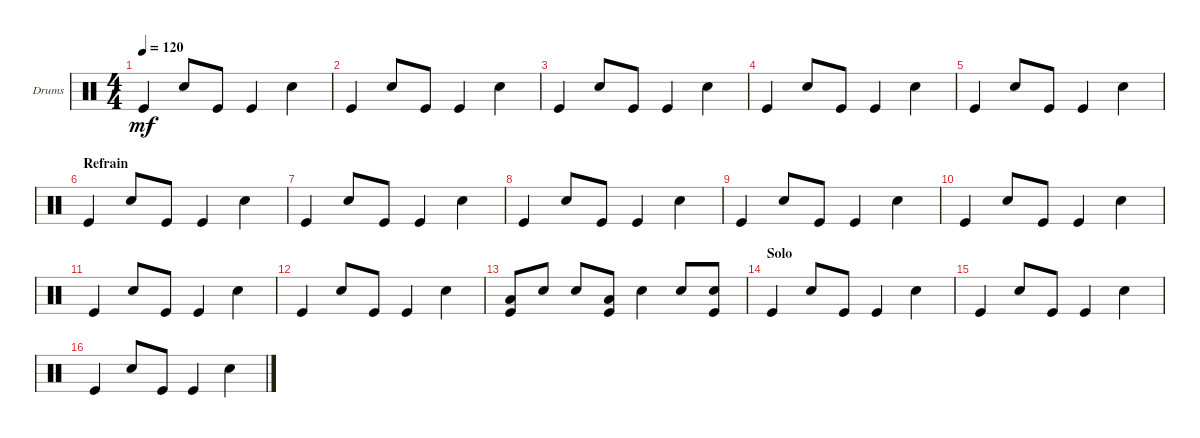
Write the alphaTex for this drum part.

\defaultSystemsLayout 4
\bracketExtendMode groupsimilarinstruments
\firstSystemTrackNameOrientation horizontal
\otherSystemsTrackNameOrientation horizontal
\track ("Drumkit" "Drums") {multiBarRest instrument percussion}
\staff {score}
\articulation defaults
\ts (4 4)
\tempo 120
\clef neutral
\ks c "Kick (hit)".4{dy mf} "Snare (hit) 2".8 "Kick (hit)".8 "Kick (hit)".4 "Snare (hit) 2".4
|
"Kick (hit)".4 "Snare (hit) 2".8 "Kick (hit)".8 "Kick (hit)".4 "Snare (hit) 2".4 |
"Kick (hit)".4 "Snare (hit) 2".8 "Kick (hit)".8 "Kick (hit)".4 "Snare (hit) 2".4 |
"Kick (hit)".4 "Snare (hit) 2".8 "Kick (hit)".8 "Kick (hit)".4 "Snare (hit) 2".4 |
"Kick (hit)".4 "Snare (hit) 2".8 "Kick (hit)".8 "Kick (hit)".4 "Snare (hit) 2".4 |
\section ("" "Refrain")
"Kick (hit)".4 "Snare (hit) 2".8 "Kick (hit)".8 "Kick (hit)".4 "Snare (hit) 2".4 |
"Kick (hit)".4 "Snare (hit) 2".8 "Kick (hit)".8 "Kick (hit)".4 "Snare (hit) 2".4 |
"Kick (hit)".4 "Snare (hit) 2".8 "Kick (hit)".8 "Kick (hit)".4 "Snare (hit) 2".4 |
"Kick (hit)".4 "Snare (hit) 2".8 "Kick (hit)".8 "Kick (hit)".4 "Snare (hit) 2".4 |
"Kick (hit)".4 "Snare (hit) 2".8 "Kick (hit)".8 "Kick (hit)".4 "Snare (hit) 2".4 |
"Kick (hit)".4 "Snare (hit) 2".8 "Kick (hit)".8 "Kick (hit)".4 "Snare (hit) 2".4 |
"Kick (hit)".4 "Snare (hit) 2".8 "Kick (hit)".8 "Kick (hit)".4 "Snare (hit) 2".4 |
("Kick (hit)" "Low Tom (hit)").8 "Snare (hit) 2".8 "Snare (hit) 2".8 ("Kick (hit)" "Low Tom (hit)").8 "Snare (hit) 2".4 "Snare (hit) 2".8 ("Snare (hit) 2" "Kick (hit)").8 |
\section ("" "Solo")
"Kick (hit)".4 "Snare (hit) 2".8 "Kick (hit)".8 "Kick (hit)".4 "Snare (hit) 2".4 |
"Kick (hit)".4 "Snare (hit) 2".8 "Kick (hit)".8 "Kick (hit)".4 "Snare (hit) 2".4 |
"Kick (hit)".4 "Snare (hit) 2".8 "Kick (hit)".8 "Kick (hit)".4 "Snare (hit) 2".4
